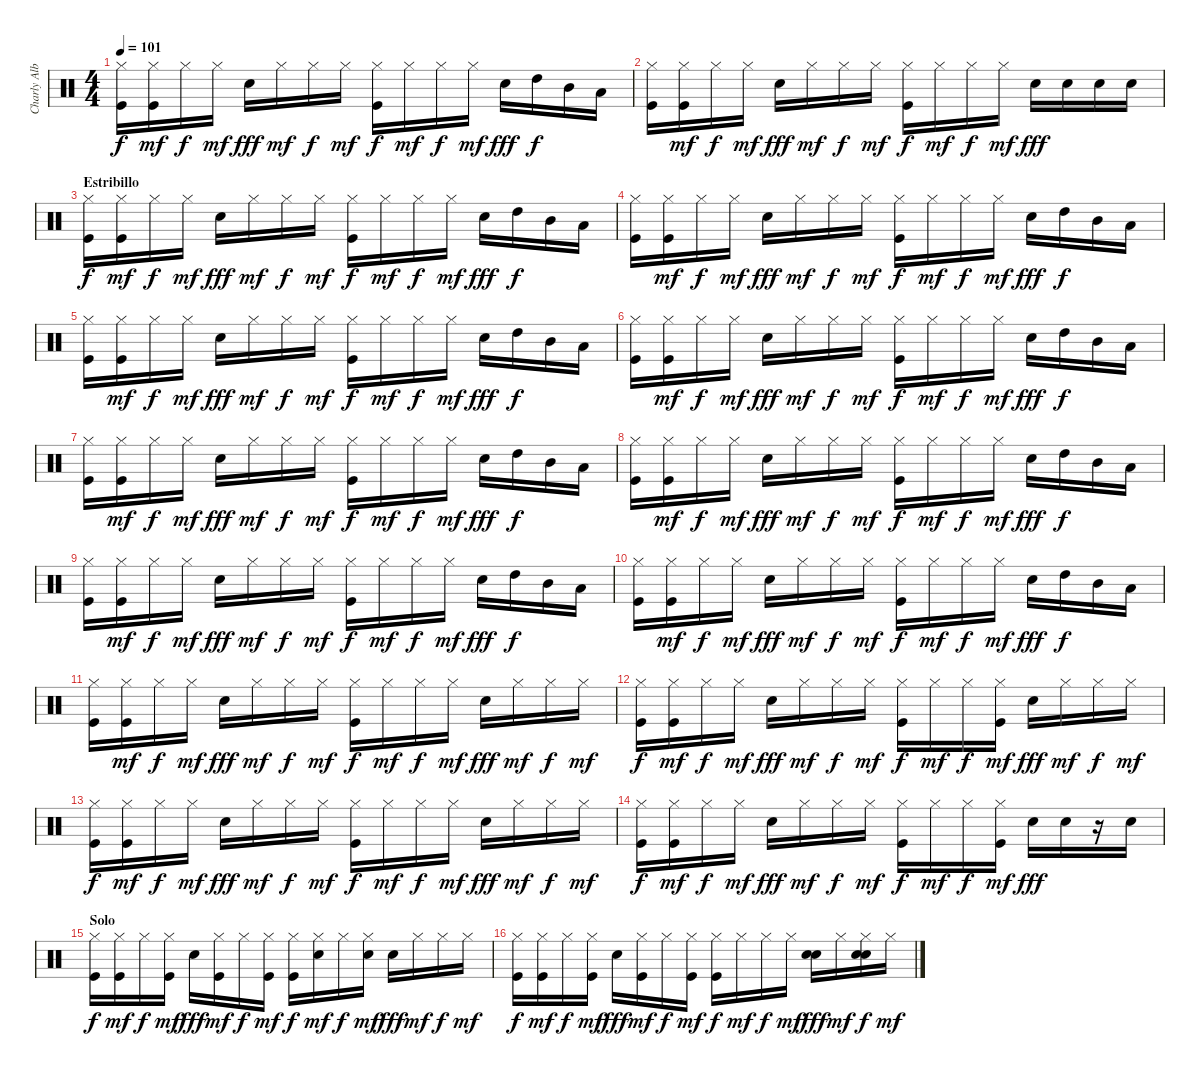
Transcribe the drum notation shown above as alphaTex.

\track ("Charly Alberti" "Charly Alb") {instrument percussion}
\staff {score}
\articulation defaults
\ts (4 4)
\tempo 101
\clef neutral
\ks c
("Kick (hit)" "Hi-Hat (closed)").16{dy f} ("Kick (hit)" "Hi-Hat (closed)").16{dy mf} "Hi-Hat (closed)".16{dy f} "Hi-Hat (closed)".16{dy mf} "Snare (hit) 2".16{dy fff} "Hi-Hat (closed)".16{dy mf} "Hi-Hat (closed)".16{dy f} "Hi-Hat (closed)".16{dy mf} ("Kick (hit)" "Hi-Hat (closed)").16{dy f} "Hi-Hat (closed)".16{dy mf} "Hi-Hat (closed)".16{dy f} "Hi-Hat (closed)".16{dy mf} "Snare (hit) 2".16{dy fff} "High Tom (hit)".16{dy f} "Mid Tom (hit)".16 "Low Tom (hit)".16 |
("Kick (hit)" "Hi-Hat (closed)").16 ("Kick (hit)" "Hi-Hat (closed)").16{dy mf} "Hi-Hat (closed)".16{dy f} "Hi-Hat (closed)".16{dy mf} "Snare (hit) 2".16{dy fff} "Hi-Hat (closed)".16{dy mf} "Hi-Hat (closed)".16{dy f} "Hi-Hat (closed)".16{dy mf} ("Kick (hit)" "Hi-Hat (closed)").16{dy f} "Hi-Hat (closed)".16{dy mf} "Hi-Hat (closed)".16{dy f} "Hi-Hat (closed)".16{dy mf} "Snare (hit) 2".16{dy fff} "Snare (hit) 2".16 "Snare (hit) 2".16 "Snare (hit) 2".16 |
\section ("" "Estribillo")
("Kick (hit)" "Hi-Hat (closed)").16{dy f} ("Kick (hit)" "Hi-Hat (closed)").16{dy mf} "Hi-Hat (closed)".16{dy f} "Hi-Hat (closed)".16{dy mf} "Snare (hit) 2".16{dy fff} "Hi-Hat (closed)".16{dy mf} "Hi-Hat (closed)".16{dy f} "Hi-Hat (closed)".16{dy mf} ("Kick (hit)" "Hi-Hat (closed)").16{dy f} "Hi-Hat (closed)".16{dy mf} "Hi-Hat (closed)".16{dy f} "Hi-Hat (closed)".16{dy mf} "Snare (hit) 2".16{dy fff} "High Tom (hit)".16{dy f} "Mid Tom (hit)".16 "Low Tom (hit)".16 |
("Kick (hit)" "Hi-Hat (closed)").16 ("Kick (hit)" "Hi-Hat (closed)").16{dy mf} "Hi-Hat (closed)".16{dy f} "Hi-Hat (closed)".16{dy mf} "Snare (hit) 2".16{dy fff} "Hi-Hat (closed)".16{dy mf} "Hi-Hat (closed)".16{dy f} "Hi-Hat (closed)".16{dy mf} ("Kick (hit)" "Hi-Hat (closed)").16{dy f} "Hi-Hat (closed)".16{dy mf} "Hi-Hat (closed)".16{dy f} "Hi-Hat (closed)".16{dy mf} "Snare (hit) 2".16{dy fff} "High Tom (hit)".16{dy f} "Mid Tom (hit)".16 "Low Tom (hit)".16 |
("Kick (hit)" "Hi-Hat (closed)").16 ("Kick (hit)" "Hi-Hat (closed)").16{dy mf} "Hi-Hat (closed)".16{dy f} "Hi-Hat (closed)".16{dy mf} "Snare (hit) 2".16{dy fff} "Hi-Hat (closed)".16{dy mf} "Hi-Hat (closed)".16{dy f} "Hi-Hat (closed)".16{dy mf} ("Kick (hit)" "Hi-Hat (closed)").16{dy f} "Hi-Hat (closed)".16{dy mf} "Hi-Hat (closed)".16{dy f} "Hi-Hat (closed)".16{dy mf} "Snare (hit) 2".16{dy fff} "High Tom (hit)".16{dy f} "Mid Tom (hit)".16 "Low Tom (hit)".16 |
("Kick (hit)" "Hi-Hat (closed)").16 ("Kick (hit)" "Hi-Hat (closed)").16{dy mf} "Hi-Hat (closed)".16{dy f} "Hi-Hat (closed)".16{dy mf} "Snare (hit) 2".16{dy fff} "Hi-Hat (closed)".16{dy mf} "Hi-Hat (closed)".16{dy f} "Hi-Hat (closed)".16{dy mf} ("Kick (hit)" "Hi-Hat (closed)").16{dy f} "Hi-Hat (closed)".16{dy mf} "Hi-Hat (closed)".16{dy f} "Hi-Hat (closed)".16{dy mf} "Snare (hit) 2".16{dy fff} "High Tom (hit)".16{dy f} "Mid Tom (hit)".16 "Low Tom (hit)".16 |
("Kick (hit)" "Hi-Hat (closed)").16 ("Kick (hit)" "Hi-Hat (closed)").16{dy mf} "Hi-Hat (closed)".16{dy f} "Hi-Hat (closed)".16{dy mf} "Snare (hit) 2".16{dy fff} "Hi-Hat (closed)".16{dy mf} "Hi-Hat (closed)".16{dy f} "Hi-Hat (closed)".16{dy mf} ("Kick (hit)" "Hi-Hat (closed)").16{dy f} "Hi-Hat (closed)".16{dy mf} "Hi-Hat (closed)".16{dy f} "Hi-Hat (closed)".16{dy mf} "Snare (hit) 2".16{dy fff} "High Tom (hit)".16{dy f} "Mid Tom (hit)".16 "Low Tom (hit)".16 |
("Kick (hit)" "Hi-Hat (closed)").16 ("Kick (hit)" "Hi-Hat (closed)").16{dy mf} "Hi-Hat (closed)".16{dy f} "Hi-Hat (closed)".16{dy mf} "Snare (hit) 2".16{dy fff} "Hi-Hat (closed)".16{dy mf} "Hi-Hat (closed)".16{dy f} "Hi-Hat (closed)".16{dy mf} ("Kick (hit)" "Hi-Hat (closed)").16{dy f} "Hi-Hat (closed)".16{dy mf} "Hi-Hat (closed)".16{dy f} "Hi-Hat (closed)".16{dy mf} "Snare (hit) 2".16{dy fff} "High Tom (hit)".16{dy f} "Mid Tom (hit)".16 "Low Tom (hit)".16 |
("Kick (hit)" "Hi-Hat (closed)").16 ("Kick (hit)" "Hi-Hat (closed)").16{dy mf} "Hi-Hat (closed)".16{dy f} "Hi-Hat (closed)".16{dy mf} "Snare (hit) 2".16{dy fff} "Hi-Hat (closed)".16{dy mf} "Hi-Hat (closed)".16{dy f} "Hi-Hat (closed)".16{dy mf} ("Kick (hit)" "Hi-Hat (closed)").16{dy f} "Hi-Hat (closed)".16{dy mf} "Hi-Hat (closed)".16{dy f} "Hi-Hat (closed)".16{dy mf} "Snare (hit) 2".16{dy fff} "High Tom (hit)".16{dy f} "Mid Tom (hit)".16 "Low Tom (hit)".16 |
("Kick (hit)" "Hi-Hat (closed)").16 ("Kick (hit)" "Hi-Hat (closed)").16{dy mf} "Hi-Hat (closed)".16{dy f} "Hi-Hat (closed)".16{dy mf} "Snare (hit) 2".16{dy fff} "Hi-Hat (closed)".16{dy mf} "Hi-Hat (closed)".16{dy f} "Hi-Hat (closed)".16{dy mf} ("Kick (hit)" "Hi-Hat (closed)").16{dy f} "Hi-Hat (closed)".16{dy mf} "Hi-Hat (closed)".16{dy f} "Hi-Hat (closed)".16{dy mf} "Snare (hit) 2".16{dy fff} "High Tom (hit)".16{dy f} "Mid Tom (hit)".16 "Low Tom (hit)".16 |
("Kick (hit)" "Hi-Hat (closed)").16 ("Kick (hit)" "Hi-Hat (closed)").16{dy mf} "Hi-Hat (closed)".16{dy f} "Hi-Hat (closed)".16{dy mf} "Snare (hit) 2".16{dy fff} "Hi-Hat (closed)".16{dy mf} "Hi-Hat (closed)".16{dy f} "Hi-Hat (closed)".16{dy mf} ("Kick (hit)" "Hi-Hat (closed)").16{dy f} "Hi-Hat (closed)".16{dy mf} "Hi-Hat (closed)".16{dy f} "Hi-Hat (closed)".16{dy mf} "Snare (hit) 2".16{dy fff} "Hi-Hat (closed)".16{dy mf} "Hi-Hat (closed)".16{dy f} "Hi-Hat (closed)".16{dy mf} |
("Kick (hit)" "Hi-Hat (closed)").16{dy f} ("Kick (hit)" "Hi-Hat (closed)").16{dy mf} "Hi-Hat (closed)".16{dy f} "Hi-Hat (closed)".16{dy mf} "Snare (hit) 2".16{dy fff} "Hi-Hat (closed)".16{dy mf} "Hi-Hat (closed)".16{dy f} "Hi-Hat (closed)".16{dy mf} ("Kick (hit)" "Hi-Hat (closed)").16{dy f} "Hi-Hat (closed)".16{dy mf} "Hi-Hat (closed)".16{dy f} ("Kick (hit)" "Hi-Hat (closed)").16{dy mf} "Snare (hit) 2".16{dy fff} "Hi-Hat (closed)".16{dy mf} "Hi-Hat (closed)".16{dy f} "Hi-Hat (closed)".16{dy mf} |
("Kick (hit)" "Hi-Hat (closed)").16{dy f} ("Kick (hit)" "Hi-Hat (closed)").16{dy mf} "Hi-Hat (closed)".16{dy f} "Hi-Hat (closed)".16{dy mf} "Snare (hit) 2".16{dy fff} "Hi-Hat (closed)".16{dy mf} "Hi-Hat (closed)".16{dy f} "Hi-Hat (closed)".16{dy mf} ("Kick (hit)" "Hi-Hat (closed)").16{dy f} "Hi-Hat (closed)".16{dy mf} "Hi-Hat (closed)".16{dy f} "Hi-Hat (closed)".16{dy mf} "Snare (hit) 2".16{dy fff} "Hi-Hat (closed)".16{dy mf} "Hi-Hat (closed)".16{dy f} "Hi-Hat (closed)".16{dy mf} |
("Kick (hit)" "Hi-Hat (closed)").16{dy f} ("Kick (hit)" "Hi-Hat (closed)").16{dy mf} "Hi-Hat (closed)".16{dy f} "Hi-Hat (closed)".16{dy mf} "Snare (hit) 2".16{dy fff} "Hi-Hat (closed)".16{dy mf} "Hi-Hat (closed)".16{dy f} "Hi-Hat (closed)".16{dy mf} ("Kick (hit)" "Hi-Hat (closed)").16{dy f} "Hi-Hat (closed)".16{dy mf} "Hi-Hat (closed)".16{dy f} ("Kick (hit)" "Hi-Hat (closed)").16{dy mf} "Snare (hit) 2".16{dy fff} "Snare (hit) 2".16 r.16 "Snare (hit) 2".16 |
\section ("" "Solo")
("Kick (hit)" "Hi-Hat (closed)").16{dy f} ("Kick (hit)" "Hi-Hat (closed)").16{dy mf} "Hi-Hat (closed)".16{dy f} ("Kick (hit)" "Hi-Hat (closed)").16{dy mf} "Snare (hit) 2".16{dy fff} ("Kick (hit)" "Hi-Hat (closed)").16{dy mf} "Hi-Hat (closed)".16{dy f} ("Kick (hit)" "Hi-Hat (closed)").16{dy mf} ("Kick (hit)" "Hi-Hat (closed)").16{dy f} ("Hand Clap (hit)" "Hi-Hat (closed)").16{dy mf} "Hi-Hat (closed)".16{dy f} ("Hand Clap (hit)" "Hi-Hat (closed)").16{dy mf} "Snare (hit) 2".16{dy fff} "Hi-Hat (closed)".16{dy mf} "Hi-Hat (closed)".16{dy f} "Hi-Hat (closed)".16{dy mf} |
("Kick (hit)" "Hi-Hat (closed)").16{dy f} ("Kick (hit)" "Hi-Hat (closed)").16{dy mf} "Hi-Hat (closed)".16{dy f} ("Kick (hit)" "Hi-Hat (closed)").16{dy mf} "Snare (hit) 2".16{dy fff} ("Kick (hit)" "Hi-Hat (closed)").16{dy mf} "Hi-Hat (closed)".16{dy f} ("Kick (hit)" "Hi-Hat (closed)").16{dy mf} ("Kick (hit)" "Hi-Hat (closed)").16{dy f} "Hi-Hat (closed)".16{dy mf} "Hi-Hat (closed)".16{dy f} "Hi-Hat (closed)".16{dy mf} ("Snare (hit) 2" "Hand Clap (hit)").16{dy fff} "Hi-Hat (closed)".16{dy mf} ("Snare (hit) 2" "Hand Clap (hit)" "Hi-Hat (closed)").16{dy f} "Hi-Hat (closed)".16{dy mf}
